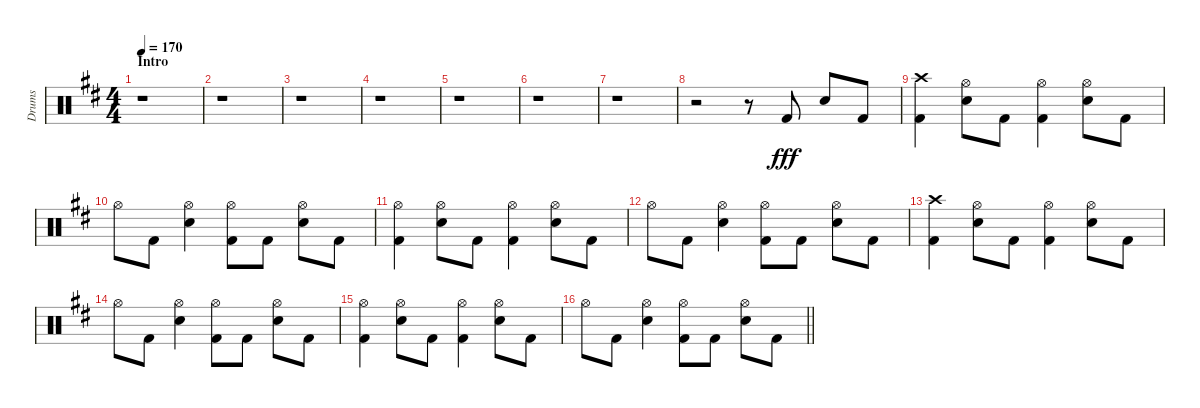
\track ("Drums" "Drums") {instrument percussion}
\staff {score}
\articulation defaults
\ts (4 4)
\section ("" "Intro")
\tempo 170
\clef neutral
\ks bminor
r.1{dy fff} |
r.1 |
r.1 |
r.1 |
r.1 |
r.1 |
r.1 |
r.2 r.8 "Kick (hit) 2".8 "Snare (hit) 2".8 "Kick (hit) 2".8 |
("Crash high (hit)" "Kick (hit) 2").4 ("Hi-Hat (open)" "Snare (hit) 2").8 "Kick (hit) 2".8 ("Hi-Hat (open)" "Kick (hit) 2").4 ("Hi-Hat (open)" "Snare (hit) 2").8 "Kick (hit) 2".8 |
"Hi-Hat (open)".8 "Kick (hit) 2".8 ("Hi-Hat (open)" "Snare (hit) 2").4 ("Hi-Hat (open)" "Kick (hit) 2").8 "Kick (hit) 2".8 ("Hi-Hat (open)" "Snare (hit) 2").8 "Kick (hit) 2".8 |
("Hi-Hat (open)" "Kick (hit) 2").4 ("Hi-Hat (open)" "Snare (hit) 2").8 "Kick (hit) 2".8 ("Hi-Hat (open)" "Kick (hit) 2").4 ("Hi-Hat (open)" "Snare (hit) 2").8 "Kick (hit) 2".8 |
"Hi-Hat (open)".8 "Kick (hit) 2".8 ("Hi-Hat (open)" "Snare (hit) 2").4 ("Hi-Hat (open)" "Kick (hit) 2").8 "Kick (hit) 2".8 ("Hi-Hat (open)" "Snare (hit) 2").8 "Kick (hit) 2".8 |
("Crash high (hit)" "Kick (hit) 2").4 ("Hi-Hat (open)" "Snare (hit) 2").8 "Kick (hit) 2".8 ("Hi-Hat (open)" "Kick (hit) 2").4 ("Hi-Hat (open)" "Snare (hit) 2").8 "Kick (hit) 2".8 |
"Hi-Hat (open)".8 "Kick (hit) 2".8 ("Hi-Hat (open)" "Snare (hit) 2").4 ("Hi-Hat (open)" "Kick (hit) 2").8 "Kick (hit) 2".8 ("Hi-Hat (open)" "Snare (hit) 2").8 "Kick (hit) 2".8 |
("Hi-Hat (open)" "Kick (hit) 2").4 ("Hi-Hat (open)" "Snare (hit) 2").8 "Kick (hit) 2".8 ("Hi-Hat (open)" "Kick (hit) 2").4 ("Hi-Hat (open)" "Snare (hit) 2").8 "Kick (hit) 2".8 |
\barLineRight lightlight "Hi-Hat (open)".8 "Kick (hit) 2".8
("Hi-Hat (open)" "Snare (hit) 2").4 ("Hi-Hat (open)" "Kick (hit) 2").8 "Kick (hit) 2".8 ("Hi-Hat (open)" "Snare (hit) 2").8 "Kick (hit) 2".8
